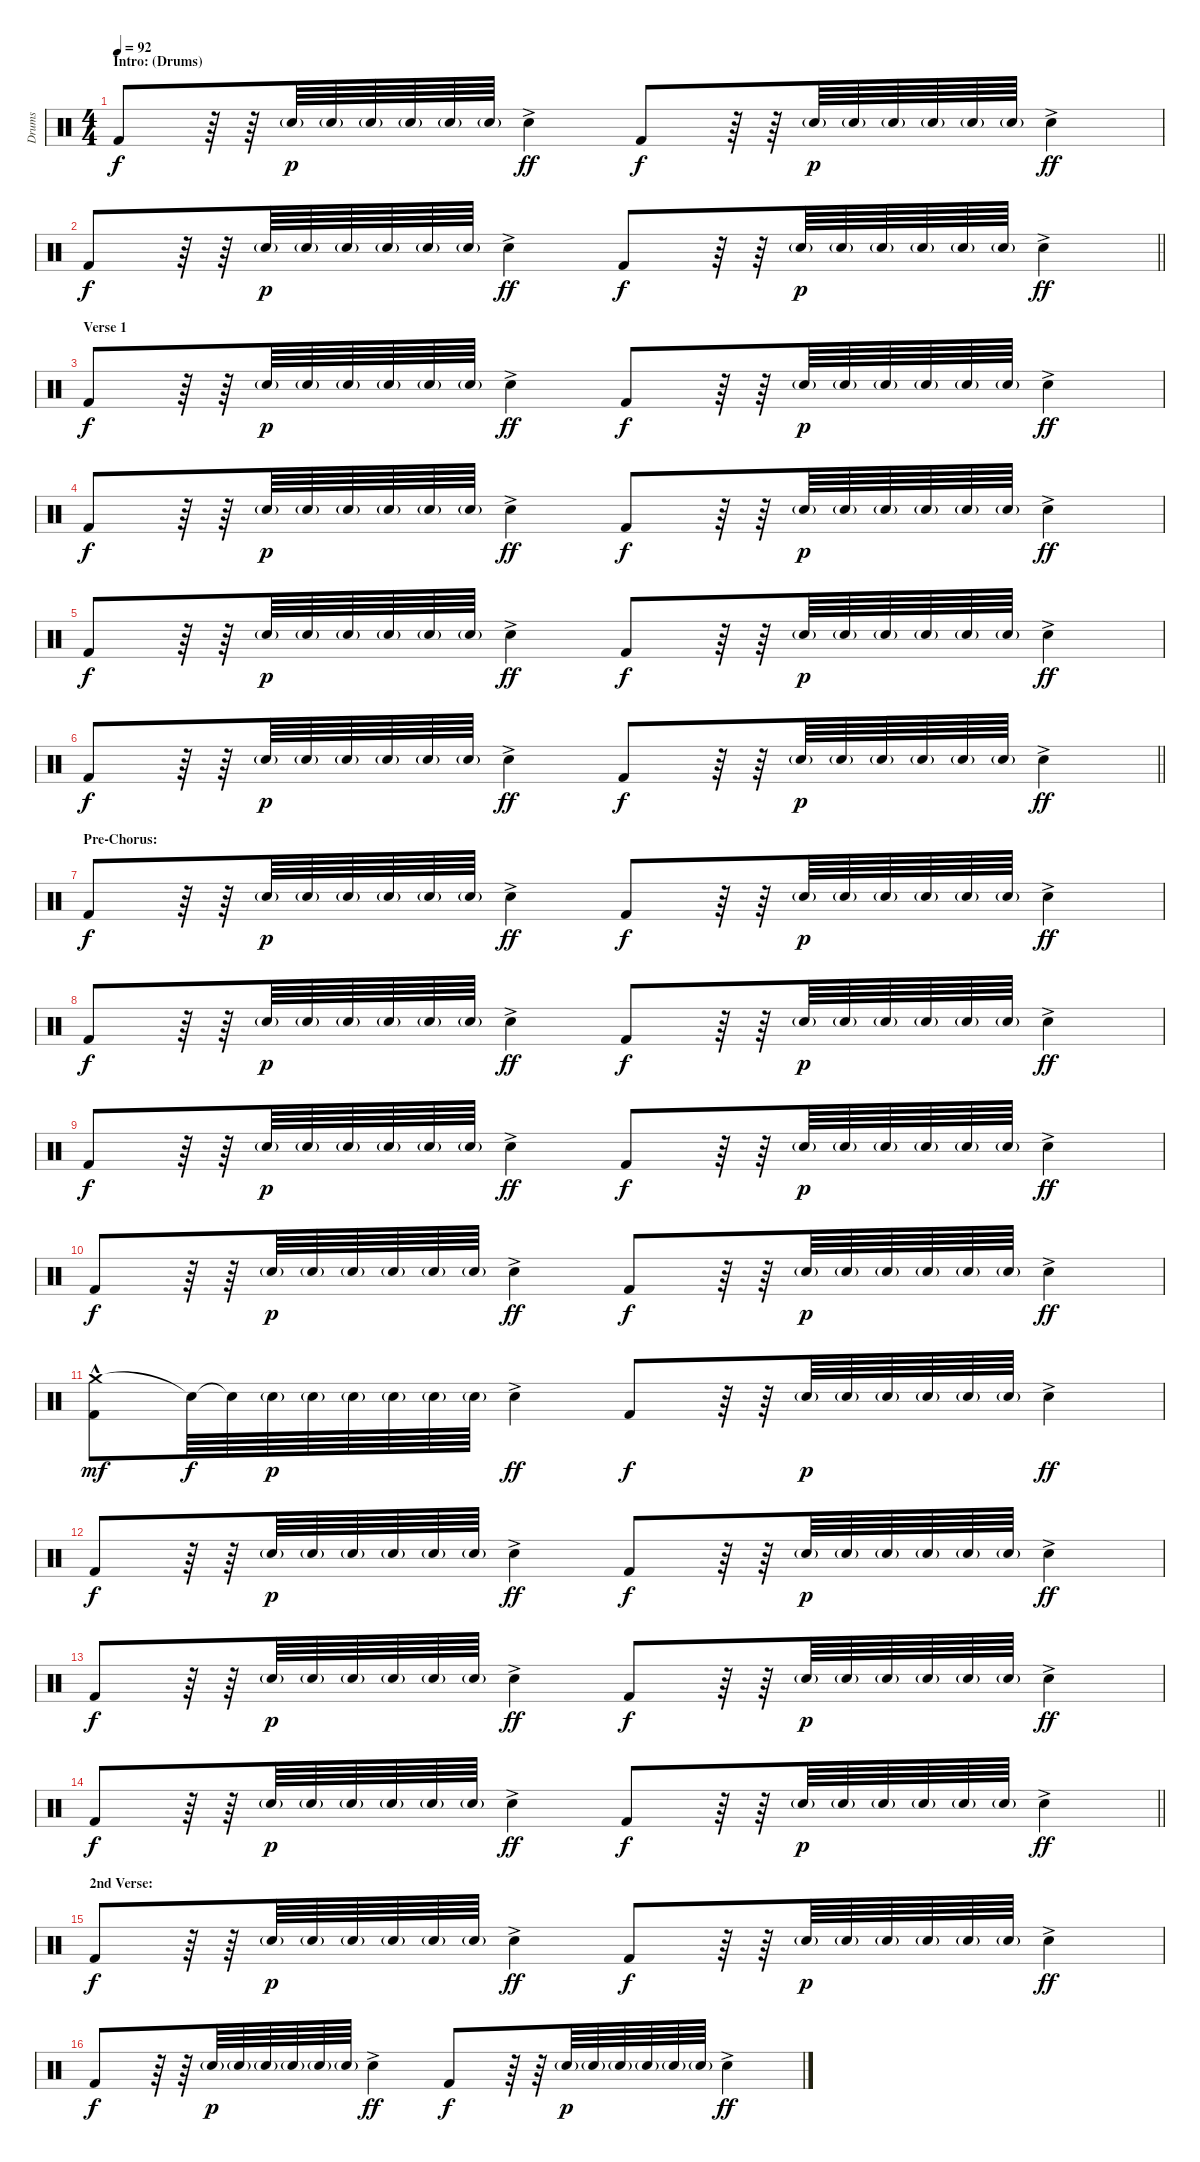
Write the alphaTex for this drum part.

\track ("Drums" "Drums") {instrument percussion}
\staff {score}
\articulation defaults
\ts (4 4)
\section ("" "Intro: (Drums)")
\tempo 92
\clef neutral
\ks c "Kick (hit) 2".8{dy f}
r.64 r.64 "Snare (hit) 2"{g}.64{dy p} "Snare (hit) 2"{g}.64 "Snare (hit) 2"{g}.64 "Snare (hit) 2"{g}.64 "Snare (hit) 2"{g}.64 "Snare (hit) 2"{g}.64 "Snare (hit) 2"{ac}.4{dy ff} "Kick (hit) 2".8{dy f} r.64 r.64 "Snare (hit) 2"{g}.64{dy p} "Snare (hit) 2"{g}.64 "Snare (hit) 2"{g}.64 "Snare (hit) 2"{g}.64 "Snare (hit) 2"{g}.64 "Snare (hit) 2"{g}.64 "Snare (hit) 2"{ac}.4{dy ff} |
\barLineRight lightlight "Kick (hit) 2".8{dy f}
r.64 r.64 "Snare (hit) 2"{g}.64{dy p} "Snare (hit) 2"{g}.64 "Snare (hit) 2"{g}.64 "Snare (hit) 2"{g}.64 "Snare (hit) 2"{g}.64 "Snare (hit) 2"{g}.64 "Snare (hit) 2"{ac}.4{dy ff} "Kick (hit) 2".8{dy f} r.64 r.64 "Snare (hit) 2"{g}.64{dy p} "Snare (hit) 2"{g}.64 "Snare (hit) 2"{g}.64 "Snare (hit) 2"{g}.64 "Snare (hit) 2"{g}.64 "Snare (hit) 2"{g}.64 "Snare (hit) 2"{ac}.4{dy ff} |
\section ("" "Verse 1")
"Kick (hit) 2".8{dy f} r.64 r.64 "Snare (hit) 2"{g}.64{dy p} "Snare (hit) 2"{g}.64 "Snare (hit) 2"{g}.64 "Snare (hit) 2"{g}.64 "Snare (hit) 2"{g}.64 "Snare (hit) 2"{g}.64 "Snare (hit) 2"{ac}.4{dy ff} "Kick (hit) 2".8{dy f} r.64 r.64 "Snare (hit) 2"{g}.64{dy p} "Snare (hit) 2"{g}.64 "Snare (hit) 2"{g}.64 "Snare (hit) 2"{g}.64 "Snare (hit) 2"{g}.64 "Snare (hit) 2"{g}.64 "Snare (hit) 2"{ac}.4{dy ff} |
"Kick (hit) 2".8{dy f} r.64 r.64 "Snare (hit) 2"{g}.64{dy p} "Snare (hit) 2"{g}.64 "Snare (hit) 2"{g}.64 "Snare (hit) 2"{g}.64 "Snare (hit) 2"{g}.64 "Snare (hit) 2"{g}.64 "Snare (hit) 2"{ac}.4{dy ff} "Kick (hit) 2".8{dy f} r.64 r.64 "Snare (hit) 2"{g}.64{dy p} "Snare (hit) 2"{g}.64 "Snare (hit) 2"{g}.64 "Snare (hit) 2"{g}.64 "Snare (hit) 2"{g}.64 "Snare (hit) 2"{g}.64 "Snare (hit) 2"{ac}.4{dy ff} |
"Kick (hit) 2".8{dy f} r.64 r.64 "Snare (hit) 2"{g}.64{dy p} "Snare (hit) 2"{g}.64 "Snare (hit) 2"{g}.64 "Snare (hit) 2"{g}.64 "Snare (hit) 2"{g}.64 "Snare (hit) 2"{g}.64 "Snare (hit) 2"{ac}.4{dy ff} "Kick (hit) 2".8{dy f} r.64 r.64 "Snare (hit) 2"{g}.64{dy p} "Snare (hit) 2"{g}.64 "Snare (hit) 2"{g}.64 "Snare (hit) 2"{g}.64 "Snare (hit) 2"{g}.64 "Snare (hit) 2"{g}.64 "Snare (hit) 2"{ac}.4{dy ff} |
\barLineRight lightlight "Kick (hit) 2".8{dy f}
r.64 r.64 "Snare (hit) 2"{g}.64{dy p} "Snare (hit) 2"{g}.64 "Snare (hit) 2"{g}.64 "Snare (hit) 2"{g}.64 "Snare (hit) 2"{g}.64 "Snare (hit) 2"{g}.64 "Snare (hit) 2"{ac}.4{dy ff} "Kick (hit) 2".8{dy f} r.64 r.64 "Snare (hit) 2"{g}.64{dy p} "Snare (hit) 2"{g}.64 "Snare (hit) 2"{g}.64 "Snare (hit) 2"{g}.64 "Snare (hit) 2"{g}.64 "Snare (hit) 2"{g}.64 "Snare (hit) 2"{ac}.4{dy ff} |
\section ("" "Pre-Chorus:")
"Kick (hit) 2".8{dy f} r.64 r.64 "Snare (hit) 2"{g}.64{dy p} "Snare (hit) 2"{g}.64 "Snare (hit) 2"{g}.64 "Snare (hit) 2"{g}.64 "Snare (hit) 2"{g}.64 "Snare (hit) 2"{g}.64 "Snare (hit) 2"{ac}.4{dy ff} "Kick (hit) 2".8{dy f} r.64 r.64 "Snare (hit) 2"{g}.64{dy p} "Snare (hit) 2"{g}.64 "Snare (hit) 2"{g}.64 "Snare (hit) 2"{g}.64 "Snare (hit) 2"{g}.64 "Snare (hit) 2"{g}.64 "Snare (hit) 2"{ac}.4{dy ff} |
"Kick (hit) 2".8{dy f} r.64 r.64 "Snare (hit) 2"{g}.64{dy p} "Snare (hit) 2"{g}.64 "Snare (hit) 2"{g}.64 "Snare (hit) 2"{g}.64 "Snare (hit) 2"{g}.64 "Snare (hit) 2"{g}.64 "Snare (hit) 2"{ac}.4{dy ff} "Kick (hit) 2".8{dy f} r.64 r.64 "Snare (hit) 2"{g}.64{dy p} "Snare (hit) 2"{g}.64 "Snare (hit) 2"{g}.64 "Snare (hit) 2"{g}.64 "Snare (hit) 2"{g}.64 "Snare (hit) 2"{g}.64 "Snare (hit) 2"{ac}.4{dy ff} |
"Kick (hit) 2".8{dy f} r.64 r.64 "Snare (hit) 2"{g}.64{dy p} "Snare (hit) 2"{g}.64 "Snare (hit) 2"{g}.64 "Snare (hit) 2"{g}.64 "Snare (hit) 2"{g}.64 "Snare (hit) 2"{g}.64 "Snare (hit) 2"{ac}.4{dy ff} "Kick (hit) 2".8{dy f} r.64 r.64 "Snare (hit) 2"{g}.64{dy p} "Snare (hit) 2"{g}.64 "Snare (hit) 2"{g}.64 "Snare (hit) 2"{g}.64 "Snare (hit) 2"{g}.64 "Snare (hit) 2"{g}.64 "Snare (hit) 2"{ac}.4{dy ff} |
"Kick (hit) 2".8{dy f} r.64 r.64 "Snare (hit) 2"{g}.64{dy p} "Snare (hit) 2"{g}.64 "Snare (hit) 2"{g}.64 "Snare (hit) 2"{g}.64 "Snare (hit) 2"{g}.64 "Snare (hit) 2"{g}.64 "Snare (hit) 2"{ac}.4{dy ff} "Kick (hit) 2".8{dy f} r.64 r.64 "Snare (hit) 2"{g}.64{dy p} "Snare (hit) 2"{g}.64 "Snare (hit) 2"{g}.64 "Snare (hit) 2"{g}.64 "Snare (hit) 2"{g}.64 "Snare (hit) 2"{g}.64 "Snare (hit) 2"{ac}.4{dy ff} |
("Crash medium (hit)"{hac} "Kick (hit) 2").8{dy mf} "Snare (hit)"{t}.64{dy f} "Snare (hit)"{t}.64 "Snare (hit) 2"{g}.64{dy p} "Snare (hit) 2"{g}.64 "Snare (hit) 2"{g}.64 "Snare (hit) 2"{g}.64 "Snare (hit) 2"{g}.64 "Snare (hit) 2"{g}.64 "Snare (hit) 2"{ac}.4{dy ff} "Kick (hit) 2".8{dy f} r.64 r.64 "Snare (hit) 2"{g}.64{dy p} "Snare (hit) 2"{g}.64 "Snare (hit) 2"{g}.64 "Snare (hit) 2"{g}.64 "Snare (hit) 2"{g}.64 "Snare (hit) 2"{g}.64 "Snare (hit) 2"{ac}.4{dy ff} |
"Kick (hit) 2".8{dy f} r.64 r.64 "Snare (hit) 2"{g}.64{dy p} "Snare (hit) 2"{g}.64 "Snare (hit) 2"{g}.64 "Snare (hit) 2"{g}.64 "Snare (hit) 2"{g}.64 "Snare (hit) 2"{g}.64 "Snare (hit) 2"{ac}.4{dy ff} "Kick (hit) 2".8{dy f} r.64 r.64 "Snare (hit) 2"{g}.64{dy p} "Snare (hit) 2"{g}.64 "Snare (hit) 2"{g}.64 "Snare (hit) 2"{g}.64 "Snare (hit) 2"{g}.64 "Snare (hit) 2"{g}.64 "Snare (hit) 2"{ac}.4{dy ff} |
"Kick (hit) 2".8{dy f} r.64 r.64 "Snare (hit) 2"{g}.64{dy p} "Snare (hit) 2"{g}.64 "Snare (hit) 2"{g}.64 "Snare (hit) 2"{g}.64 "Snare (hit) 2"{g}.64 "Snare (hit) 2"{g}.64 "Snare (hit) 2"{ac}.4{dy ff} "Kick (hit) 2".8{dy f} r.64 r.64 "Snare (hit) 2"{g}.64{dy p} "Snare (hit) 2"{g}.64 "Snare (hit) 2"{g}.64 "Snare (hit) 2"{g}.64 "Snare (hit) 2"{g}.64 "Snare (hit) 2"{g}.64 "Snare (hit) 2"{ac}.4{dy ff} |
\barLineRight lightlight "Kick (hit) 2".8{dy f}
r.64 r.64 "Snare (hit) 2"{g}.64{dy p} "Snare (hit) 2"{g}.64 "Snare (hit) 2"{g}.64 "Snare (hit) 2"{g}.64 "Snare (hit) 2"{g}.64 "Snare (hit) 2"{g}.64 "Snare (hit) 2"{ac}.4{dy ff} "Kick (hit) 2".8{dy f} r.64 r.64 "Snare (hit) 2"{g}.64{dy p} "Snare (hit) 2"{g}.64 "Snare (hit) 2"{g}.64 "Snare (hit) 2"{g}.64 "Snare (hit) 2"{g}.64 "Snare (hit) 2"{g}.64 "Snare (hit) 2"{ac}.4{dy ff} |
\section ("" "2nd Verse:")
"Kick (hit) 2".8{dy f} r.64 r.64 "Snare (hit) 2"{g}.64{dy p} "Snare (hit) 2"{g}.64 "Snare (hit) 2"{g}.64 "Snare (hit) 2"{g}.64 "Snare (hit) 2"{g}.64 "Snare (hit) 2"{g}.64 "Snare (hit) 2"{ac}.4{dy ff} "Kick (hit) 2".8{dy f} r.64 r.64 "Snare (hit) 2"{g}.64{dy p} "Snare (hit) 2"{g}.64 "Snare (hit) 2"{g}.64 "Snare (hit) 2"{g}.64 "Snare (hit) 2"{g}.64 "Snare (hit) 2"{g}.64 "Snare (hit) 2"{ac}.4{dy ff} |
"Kick (hit) 2".8{dy f} r.64 r.64 "Snare (hit) 2"{g}.64{dy p} "Snare (hit) 2"{g}.64 "Snare (hit) 2"{g}.64 "Snare (hit) 2"{g}.64 "Snare (hit) 2"{g}.64 "Snare (hit) 2"{g}.64 "Snare (hit) 2"{ac}.4{dy ff} "Kick (hit) 2".8{dy f} r.64 r.64 "Snare (hit) 2"{g}.64{dy p} "Snare (hit) 2"{g}.64 "Snare (hit) 2"{g}.64 "Snare (hit) 2"{g}.64 "Snare (hit) 2"{g}.64 "Snare (hit) 2"{g}.64 "Snare (hit) 2"{ac}.4{dy ff}
